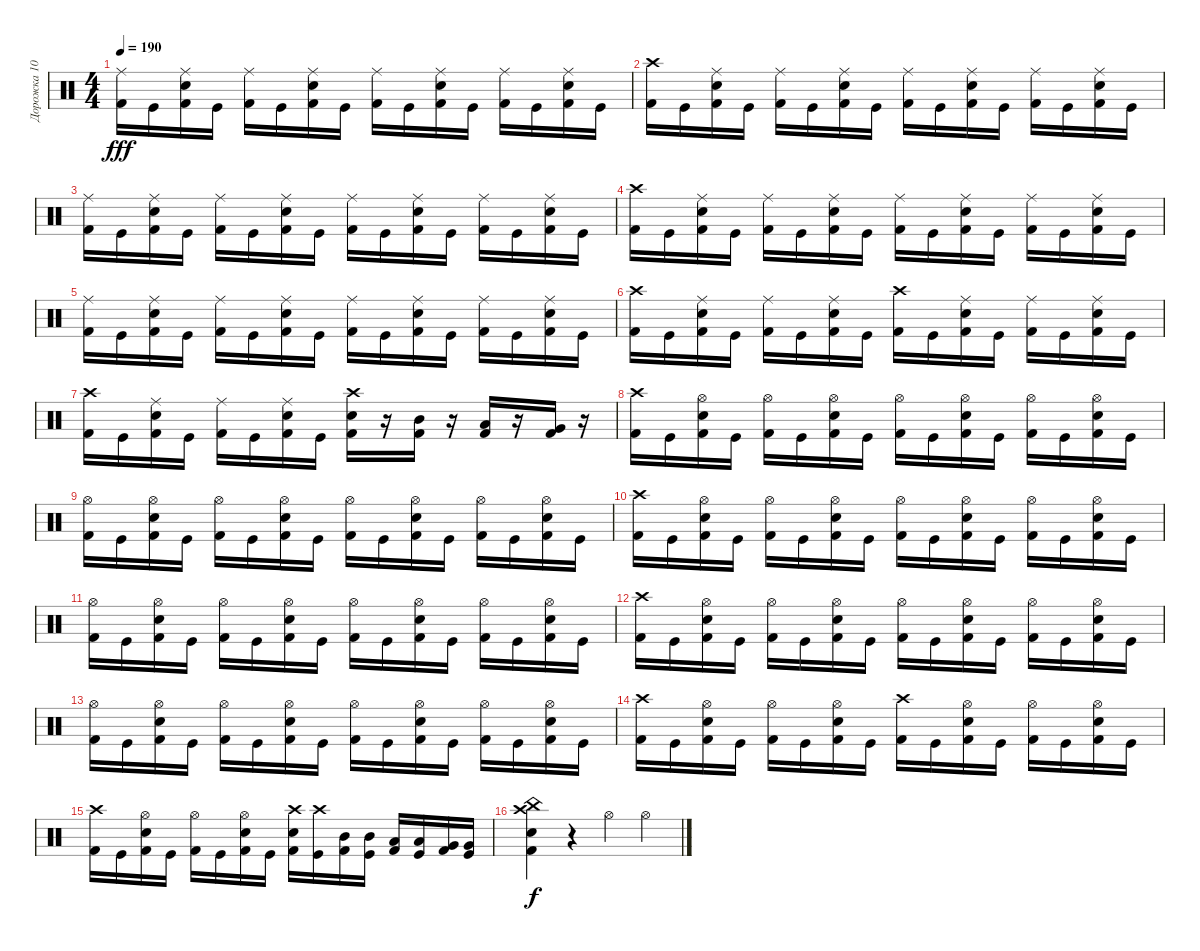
\track ("Дорожка 10" "Дорожка 10") {instrument percussion}
\staff {score}
\articulation defaults
\ts (4 4)
\tempo 190
\clef neutral
\ks c
("Ride (middle)" "Kick (hit) 2").16{dy fff} "Kick (hit)".16 ("Electric Snare (hit)" "Ride (middle)" "Kick (hit) 2").16 "Kick (hit)".16 ("Ride (middle)" "Kick (hit) 2").16 "Kick (hit)".16 ("Ride (middle)" "Kick (hit) 2" "Electric Snare (hit)").16 "Kick (hit)".16 ("Kick (hit) 2" "Ride (middle)").16 "Kick (hit)".16 ("Electric Snare (hit)" "Ride (middle)" "Kick (hit) 2").16 "Kick (hit)".16 ("Ride (middle)" "Kick (hit) 2").16 "Kick (hit)".16 ("Ride (middle)" "Kick (hit) 2" "Electric Snare (hit)").16 "Kick (hit)".16 |
("Crash high (hit)" "Kick (hit) 2").16 "Kick (hit)".16 ("Electric Snare (hit)" "Kick (hit) 2" "Ride (middle)").16 "Kick (hit)".16 ("Ride (middle)" "Kick (hit) 2").16 "Kick (hit)".16 ("Electric Snare (hit)" "Kick (hit) 2" "Ride (middle)").16 "Kick (hit)".16 ("Kick (hit) 2" "Ride (middle)").16 "Kick (hit)".16 ("Electric Snare (hit)" "Kick (hit) 2" "Ride (middle)").16 "Kick (hit)".16 ("Ride (middle)" "Kick (hit) 2").16 "Kick (hit)".16 ("Kick (hit) 2" "Ride (middle)" "Electric Snare (hit)").16 "Kick (hit)".16 |
("Kick (hit) 2" "Ride (middle)").16 "Kick (hit)".16 ("Kick (hit) 2" "Ride (middle)" "Electric Snare (hit)").16 "Kick (hit)".16 ("Ride (middle)" "Kick (hit) 2").16 "Kick (hit)".16 ("Kick (hit) 2" "Ride (middle)" "Electric Snare (hit)").16 "Kick (hit)".16 ("Ride (middle)" "Kick (hit) 2").16 "Kick (hit)".16 ("Electric Snare (hit)" "Ride (middle)" "Kick (hit) 2").16 "Kick (hit)".16 ("Ride (middle)" "Kick (hit) 2").16 "Kick (hit)".16 ("Ride (middle)" "Electric Snare (hit)" "Kick (hit) 2").16 "Kick (hit)".16 |
("Crash high (hit)" "Kick (hit) 2").16 "Kick (hit)".16 ("Electric Snare (hit)" "Kick (hit) 2" "Ride (middle)").16 "Kick (hit)".16 ("Kick (hit) 2" "Ride (middle)").16 "Kick (hit)".16 ("Kick (hit) 2" "Electric Snare (hit)" "Ride (middle)").16 "Kick (hit)".16 ("Kick (hit) 2" "Ride (middle)").16 "Kick (hit)".16 ("Kick (hit) 2" "Electric Snare (hit)" "Ride (middle)").16 "Kick (hit)".16 ("Ride (middle)" "Kick (hit) 2").16 "Kick (hit)".16 ("Ride (middle)" "Electric Snare (hit)" "Kick (hit) 2").16 "Kick (hit)".16 |
("Ride (middle)" "Kick (hit) 2").16 "Kick (hit)".16 ("Kick (hit) 2" "Ride (middle)" "Electric Snare (hit)").16 "Kick (hit)".16 ("Kick (hit) 2" "Ride (middle)").16 "Kick (hit)".16 ("Kick (hit) 2" "Electric Snare (hit)" "Ride (middle)").16 "Kick (hit)".16 ("Kick (hit) 2" "Ride (middle)").16 "Kick (hit)".16 ("Kick (hit) 2" "Electric Snare (hit)" "Ride (middle)").16 "Kick (hit)".16 ("Ride (middle)" "Kick (hit) 2").16 "Kick (hit)".16 ("Ride (middle)" "Kick (hit) 2" "Electric Snare (hit)").16 "Kick (hit)".16 |
("Kick (hit) 2" "Crash high (hit)").16 "Kick (hit)".16 ("Electric Snare (hit)" "Ride (middle)" "Kick (hit) 2").16 "Kick (hit)".16 ("Kick (hit) 2" "Ride (middle)").16 "Kick (hit)".16 ("Electric Snare (hit)" "Ride (middle)" "Kick (hit) 2").16 "Kick (hit)".16 ("Crash high (hit)" "Kick (hit) 2").16 "Kick (hit)".16 ("Ride (middle)" "Kick (hit) 2" "Electric Snare (hit)").16 "Kick (hit)".16 ("Ride (middle)" "Kick (hit) 2").16 "Kick (hit)".16 ("Ride (middle)" "Kick (hit) 2" "Electric Snare (hit)").16 "Kick (hit)".16 |
("Crash high (hit)" "Kick (hit) 2").16 "Kick (hit)".16 ("Kick (hit) 2" "Ride (middle)" "Electric Snare (hit)").16 "Kick (hit)".16 ("Ride (middle)" "Kick (hit) 2").16 "Kick (hit)".16 ("Kick (hit) 2" "Electric Snare (hit)" "Ride (middle)").16 "Kick (hit)".16 ("Electric Snare (hit)" "Kick (hit) 2" "Crash high (hit)").16 r.16 ("Mid Tom (hit)" "Kick (hit) 2").16 r.16 ("Low Tom (hit)" "Kick (hit) 2").16 r.16 ("Kick (hit) 2" "Very Low Tom (hit)").16 r.16 |
("Crash high (hit)" "Kick (hit) 2").16 "Kick (hit)".16 ("Hi-Hat (open)" "Kick (hit) 2" "Electric Snare (hit)").16 "Kick (hit)".16 ("Hi-Hat (open)" "Kick (hit) 2").16 "Kick (hit)".16 ("Kick (hit) 2" "Hi-Hat (open)" "Electric Snare (hit)").16 "Kick (hit)".16 ("Kick (hit) 2" "Hi-Hat (open)").16 "Kick (hit)".16 ("Hi-Hat (open)" "Electric Snare (hit)" "Kick (hit) 2").16 "Kick (hit)".16 ("Hi-Hat (open)" "Kick (hit) 2").16 "Kick (hit)".16 ("Hi-Hat (open)" "Electric Snare (hit)" "Kick (hit) 2").16 "Kick (hit)".16 |
("Kick (hit) 2" "Hi-Hat (open)").16 "Kick (hit)".16 ("Electric Snare (hit)" "Kick (hit) 2" "Hi-Hat (open)").16 "Kick (hit)".16 ("Kick (hit) 2" "Hi-Hat (open)").16 "Kick (hit)".16 ("Kick (hit) 2" "Electric Snare (hit)" "Hi-Hat (open)").16 "Kick (hit)".16 ("Hi-Hat (open)" "Kick (hit) 2").16 "Kick (hit)".16 ("Hi-Hat (open)" "Electric Snare (hit)" "Kick (hit) 2").16 "Kick (hit)".16 ("Hi-Hat (open)" "Kick (hit) 2").16 "Kick (hit)".16 ("Electric Snare (hit)" "Kick (hit) 2" "Hi-Hat (open)").16 "Kick (hit)".16 |
("Kick (hit) 2" "Crash high (hit)").16 "Kick (hit)".16 ("Electric Snare (hit)" "Kick (hit) 2" "Hi-Hat (open)").16 "Kick (hit)".16 ("Kick (hit) 2" "Hi-Hat (open)").16 "Kick (hit)".16 ("Electric Snare (hit)" "Hi-Hat (open)" "Kick (hit) 2").16 "Kick (hit)".16 ("Kick (hit) 2" "Hi-Hat (open)").16 "Kick (hit)".16 ("Kick (hit) 2" "Electric Snare (hit)" "Hi-Hat (open)").16 "Kick (hit)".16 ("Hi-Hat (open)" "Kick (hit) 2").16 "Kick (hit)".16 ("Hi-Hat (open)" "Kick (hit) 2" "Electric Snare (hit)").16 "Kick (hit)".16 |
("Kick (hit) 2" "Hi-Hat (open)").16 "Kick (hit)".16 ("Kick (hit) 2" "Hi-Hat (open)" "Electric Snare (hit)").16 "Kick (hit)".16 ("Hi-Hat (open)" "Kick (hit) 2").16 "Kick (hit)".16 ("Hi-Hat (open)" "Kick (hit) 2" "Electric Snare (hit)").16 "Kick (hit)".16 ("Kick (hit) 2" "Hi-Hat (open)").16 "Kick (hit)".16 ("Kick (hit) 2" "Hi-Hat (open)" "Electric Snare (hit)").16 "Kick (hit)".16 ("Kick (hit) 2" "Hi-Hat (open)").16 "Kick (hit)".16 ("Hi-Hat (open)" "Electric Snare (hit)" "Kick (hit) 2").16 "Kick (hit)".16 |
("Crash high (hit)" "Kick (hit) 2").16 "Kick (hit)".16 ("Hi-Hat (open)" "Kick (hit) 2" "Electric Snare (hit)").16 "Kick (hit)".16 ("Kick (hit) 2" "Hi-Hat (open)").16 "Kick (hit)".16 ("Kick (hit) 2" "Electric Snare (hit)" "Hi-Hat (open)").16 "Kick (hit)".16 ("Hi-Hat (open)" "Kick (hit) 2").16 "Kick (hit)".16 ("Kick (hit) 2" "Hi-Hat (open)" "Electric Snare (hit)").16 "Kick (hit)".16 ("Hi-Hat (open)" "Kick (hit) 2").16 "Kick (hit)".16 ("Hi-Hat (open)" "Electric Snare (hit)" "Kick (hit) 2").16 "Kick (hit)".16 |
("Kick (hit) 2" "Hi-Hat (open)").16 "Kick (hit)".16 ("Kick (hit) 2" "Electric Snare (hit)" "Hi-Hat (open)").16 "Kick (hit)".16 ("Hi-Hat (open)" "Kick (hit) 2").16 "Kick (hit)".16 ("Kick (hit) 2" "Hi-Hat (open)" "Electric Snare (hit)").16 "Kick (hit)".16 ("Hi-Hat (open)" "Kick (hit) 2").16 "Kick (hit)".16 ("Electric Snare (hit)" "Hi-Hat (open)" "Kick (hit) 2").16 "Kick (hit)".16 ("Hi-Hat (open)" "Kick (hit) 2").16 "Kick (hit)".16 ("Electric Snare (hit)" "Hi-Hat (open)" "Kick (hit) 2").16 "Kick (hit)".16 |
("Kick (hit) 2" "Crash high (hit)").16 "Kick (hit)".16 ("Electric Snare (hit)" "Kick (hit) 2" "Hi-Hat (open)").16 "Kick (hit)".16 ("Hi-Hat (open)" "Kick (hit) 2").16 "Kick (hit)".16 ("Hi-Hat (open)" "Electric Snare (hit)" "Kick (hit) 2").16 "Kick (hit)".16 ("Kick (hit) 2" "Crash high (hit)").16 "Kick (hit)".16 ("Kick (hit) 2" "Hi-Hat (open)" "Electric Snare (hit)").16 "Kick (hit)".16 ("Hi-Hat (open)" "Kick (hit) 2").16 "Kick (hit)".16 ("Electric Snare (hit)" "Hi-Hat (open)" "Kick (hit) 2").16 "Kick (hit)".16 |
("Kick (hit) 2" "Crash high (hit)").16 "Kick (hit)".16 ("Hi-Hat (open)" "Kick (hit) 2" "Electric Snare (hit)").16 "Kick (hit)".16 ("Kick (hit) 2" "Hi-Hat (open)").16 "Kick (hit)".16 ("Kick (hit) 2" "Electric Snare (hit)" "Hi-Hat (open)").16 "Kick (hit)".16 ("Electric Snare (hit)" "Kick (hit) 2" "Crash high (hit)").16 ("Crash high (hit)" "Kick (hit)").16 ("Mid Tom (hit)" "Kick (hit) 2").16 ("Mid Tom (hit)" "Kick (hit)").16 ("Kick (hit) 2" "Low Tom (hit)").16 ("Low Tom (hit)" "Kick (hit)").16 ("Kick (hit) 2" "Very Low Tom (hit)").16 ("Kick (hit)" "Very Low Tom (hit)").16 |
("Electric Snare (hit)" "Crash high (hit)" "China (hit)" "Kick (hit) 2").4{dy f} r.4 "Hi-Hat (open)".4 "Hi-Hat (open)".4
